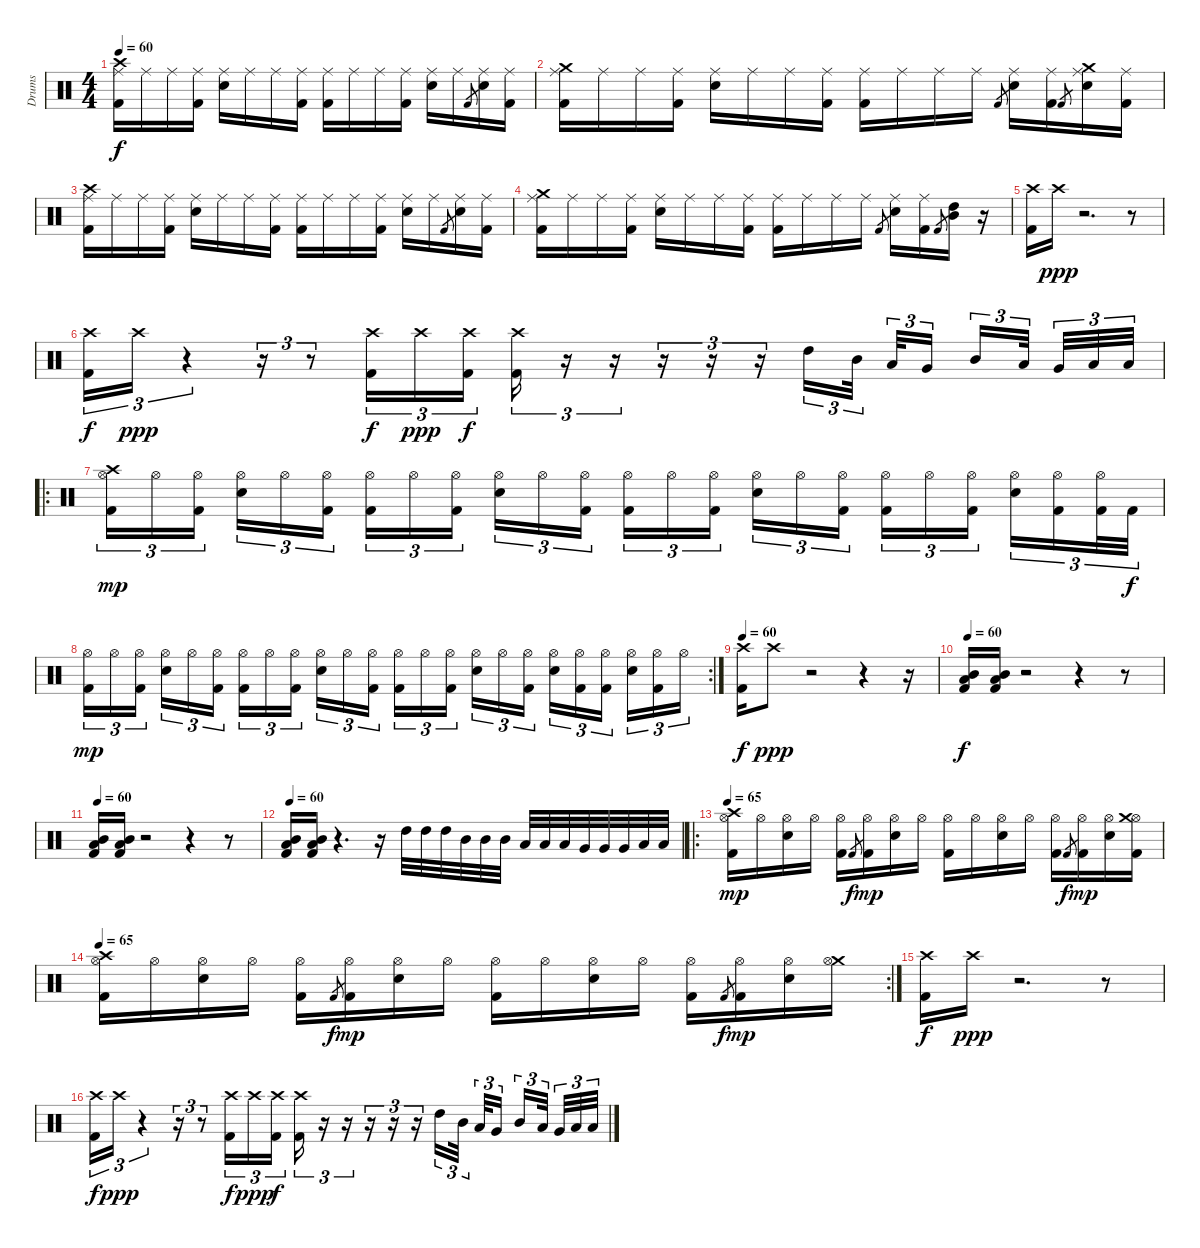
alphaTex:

\track ("Drums" "Drums") {instrument percussion}
\staff {score}
\articulation defaults
\ts (4 4)
\tempo 60
\clef neutral
\ks c
("Ride (middle)" "Crash high (hit)" "Kick (hit) 2").16{dy f} "Ride (middle)".16 "Ride (middle)".16 ("Ride (middle)" "Kick (hit) 2").16 ("Ride (middle)" "Snare (hit) 2").16 "Ride (middle)".16 "Ride (middle)".16 ("Ride (middle)" "Kick (hit) 2").16 ("Ride (middle)" "Kick (hit) 2").16 "Ride (middle)".16 "Ride (middle)".16 ("Ride (middle)" "Kick (hit) 2").16 ("Ride (middle)" "Snare (hit) 2").16 "Ride (middle)".16 "Kick (hit) 2".8{gr} ("Ride (middle)" "Snare (hit) 2").16 ("Ride (middle)" "Kick (hit) 2").16 |
("Ride (middle)" "Crash medium (hit)" "Kick (hit) 2").16 "Ride (middle)".16 "Ride (middle)".16 ("Ride (middle)" "Kick (hit) 2").16 ("Ride (middle)" "Snare (hit) 2").16 "Ride (middle)".16 "Ride (middle)".16 ("Ride (middle)" "Kick (hit) 2").16 ("Ride (middle)" "Kick (hit) 2").16 "Ride (middle)".16 "Ride (middle)".16 "Ride (middle)".16 "Kick (hit) 2".8{gr} ("Ride (middle)" "Snare (hit) 2").16 ("Ride (middle)" "Kick (hit) 2").16 "Kick (hit) 2".8{gr} ("Ride (middle)" "Crash medium (hit)" "Snare (hit) 2").16 ("Ride (middle)" "Kick (hit) 2").16 |
("Ride (middle)" "Crash high (hit)" "Kick (hit) 2").16 "Ride (middle)".16 "Ride (middle)".16 ("Ride (middle)" "Kick (hit) 2").16 ("Ride (middle)" "Snare (hit) 2").16 "Ride (middle)".16 "Ride (middle)".16 ("Ride (middle)" "Kick (hit) 2").16 ("Ride (middle)" "Kick (hit) 2").16 "Ride (middle)".16 "Ride (middle)".16 ("Ride (middle)" "Kick (hit) 2").16 ("Ride (middle)" "Snare (hit) 2").16 "Ride (middle)".16 "Kick (hit) 2".8{gr} ("Ride (middle)" "Snare (hit) 2").16 ("Ride (middle)" "Kick (hit) 2").16 |
("Ride (middle)" "Crash medium (hit)" "Kick (hit) 2").16 "Ride (middle)".16 "Ride (middle)".16 ("Ride (middle)" "Kick (hit) 2").16 ("Ride (middle)" "Snare (hit) 2").16 "Ride (middle)".16 "Ride (middle)".16 ("Ride (middle)" "Kick (hit) 2").16 ("Ride (middle)" "Kick (hit) 2").16 "Ride (middle)".16 "Ride (middle)".16 "Ride (middle)".16 "Kick (hit) 2".8{gr} ("Ride (middle)" "Snare (hit) 2").16 ("Ride (middle)" "Kick (hit) 2").16 "Kick (hit) 2".8{gr} ("Mid Tom (hit)" "High Tom (hit)").16 r.16 |
("Crash high (hit)" "Kick (hit) 2").16 "Crash high (hit)".16{dy ppp} r.2{d} r.8 |
("Crash high (hit)" "Kick (hit) 2").16{tu (3 2) dy f} "Crash high (hit)".16{tu (3 2) dy ppp} r.4{tu (3 2)} r.16{tu (3 2)} r.8{tu (3 2)} ("Crash high (hit)" "Kick (hit) 2").16{tu (3 2) dy f} "Crash high (hit)".16{tu (3 2) dy ppp} ("Crash high (hit)" "Kick (hit) 2").16{tu (3 2) dy f} ("Crash high (hit)" "Kick (hit) 2").16{tu (3 2)} r.16{tu (3 2)} r.16{tu (3 2)} r.16{tu (3 2)} r.16{tu (3 2)} r.16{tu (3 2)} "High Tom (hit)".16{tu (3 2)} "Mid Tom (hit)".32{tu (3 2)} "Low Tom (hit)".32{tu (3 2)} "Very Low Tom (hit)".16{tu (3 2)} "Mid Tom (hit)".16{tu (3 2)} "Low Tom (hit)".32{tu (3 2)} "Very Low Tom (hit)".32{tu (3 2)} "Low Floor Tom (hit)".32{tu (3 2)} "Low Floor Tom (hit)".32{tu (3 2)} |
\ro
("Hi-Hat (open)" "Crash high (hit)" "Kick (hit) 2").16{tu (3 2) dy mp} "Hi-Hat (open)".16{tu (3 2)} ("Hi-Hat (open)" "Kick (hit) 2").16{tu (3 2)} ("Hi-Hat (open)" "Snare (hit) 2").16{tu (3 2)} "Hi-Hat (open)".16{tu (3 2)} ("Hi-Hat (open)" "Kick (hit) 2").16{tu (3 2)} ("Hi-Hat (open)" "Kick (hit) 2").16{tu (3 2)} "Hi-Hat (open)".16{tu (3 2)} ("Hi-Hat (open)" "Kick (hit) 2").16{tu (3 2)} ("Hi-Hat (open)" "Snare (hit) 2").16{tu (3 2)} "Hi-Hat (open)".16{tu (3 2)} ("Hi-Hat (open)" "Kick (hit) 2").16{tu (3 2)} ("Hi-Hat (open)" "Kick (hit) 2").16{tu (3 2)} "Hi-Hat (open)".16{tu (3 2)} ("Hi-Hat (open)" "Kick (hit) 2").16{tu (3 2)} ("Hi-Hat (open)" "Snare (hit) 2").16{tu (3 2)} "Hi-Hat (open)".16{tu (3 2)} ("Hi-Hat (open)" "Kick (hit) 2").16{tu (3 2)} ("Hi-Hat (open)" "Kick (hit) 2").16{tu (3 2)} "Hi-Hat (open)".16{tu (3 2)} ("Hi-Hat (open)" "Kick (hit) 2").16{tu (3 2)} ("Hi-Hat (open)" "Snare (hit) 2").16{tu (3 2)} ("Hi-Hat (open)" "Kick (hit) 2").16{tu (3 2)} ("Hi-Hat (open)" "Kick (hit) 2").32{tu (3 2)} "Kick (hit) 2".32{tu (3 2) dy f} |
\rc 2
("Hi-Hat (open)" "Kick (hit) 2").16{tu (3 2) dy mp} "Hi-Hat (open)".16{tu (3 2)} ("Hi-Hat (open)" "Kick (hit) 2").16{tu (3 2)} ("Hi-Hat (open)" "Snare (hit) 2").16{tu (3 2)} "Hi-Hat (open)".16{tu (3 2)} ("Hi-Hat (open)" "Kick (hit) 2").16{tu (3 2)} ("Hi-Hat (open)" "Kick (hit) 2").16{tu (3 2)} "Hi-Hat (open)".16{tu (3 2)} ("Hi-Hat (open)" "Kick (hit) 2").16{tu (3 2)} ("Hi-Hat (open)" "Snare (hit) 2").16{tu (3 2)} "Hi-Hat (open)".16{tu (3 2)} ("Hi-Hat (open)" "Kick (hit) 2").16{tu (3 2)} ("Hi-Hat (open)" "Kick (hit) 2").16{tu (3 2)} "Hi-Hat (open)".16{tu (3 2)} ("Hi-Hat (open)" "Kick (hit) 2").16{tu (3 2)} ("Hi-Hat (open)" "Snare (hit) 2").16{tu (3 2)} "Hi-Hat (open)".16{tu (3 2)} ("Hi-Hat (open)" "Kick (hit) 2").16{tu (3 2)} ("Hi-Hat (open)" "Snare (hit) 2").16{tu (3 2)} ("Hi-Hat (open)" "Kick (hit) 2").16{tu (3 2)} ("Hi-Hat (open)" "Kick (hit) 2").16{tu (3 2)} ("Hi-Hat (open)" "Snare (hit) 2").16{tu (3 2)} ("Hi-Hat (open)" "Kick (hit) 2").16{tu (3 2)} "Hi-Hat (open)".16{tu (3 2)} |
\tempo 60
("Crash high (hit)" "Kick (hit) 2").16{dy f} "Crash high (hit)".8{dy ppp} r.2 r.4 r.16 |
\tempo 60
("Mid Tom (hit)" "Low Tom (hit)" "Kick (hit) 2").16{dy f} ("Mid Tom (hit)" "Low Tom (hit)" "Kick (hit) 2").16 r.2 r.4 r.8 |
\tempo 60
("Mid Tom (hit)" "Low Tom (hit)" "Kick (hit) 2").16 ("Mid Tom (hit)" "Low Tom (hit)" "Kick (hit) 2").16 r.2 r.4 r.8 |
\tempo 60
("Mid Tom (hit)" "Low Tom (hit)" "Kick (hit) 2").16 ("Mid Tom (hit)" "Low Tom (hit)" "Kick (hit) 2").16 r.4{d} r.16 "High Tom (hit)".32 "High Tom (hit)".32 "High Tom (hit)".32 "Mid Tom (hit)".32 "Mid Tom (hit)".32 "Mid Tom (hit)".32 "Low Tom (hit)".32 "Low Tom (hit)".32 "Low Tom (hit)".32 "Very Low Tom (hit)".32 "Very Low Tom (hit)".32 "Very Low Tom (hit)".32 "Low Floor Tom (hit)".32 "Low Floor Tom (hit)".32 |
\ro
\tempo 60
\tempo 65
("Crash high (hit)" "Hi-Hat (open)" "Kick (hit) 2").16{dy mp} "Hi-Hat (open)".16 ("Hi-Hat (open)" "Snare (hit) 2").16 "Hi-Hat (open)".16 ("Hi-Hat (open)" "Kick (hit) 2").16 "Kick (hit) 2".8{gr dy f} ("Hi-Hat (open)" "Kick (hit) 2").16{dy mp} ("Hi-Hat (open)" "Snare (hit) 2").16 "Hi-Hat (open)".16 ("Hi-Hat (open)" "Kick (hit) 2").16 "Hi-Hat (open)".16 ("Hi-Hat (open)" "Snare (hit) 2").16 "Hi-Hat (open)".16 ("Hi-Hat (open)" "Kick (hit) 2").16 "Kick (hit) 2".8{gr dy f} ("Hi-Hat (open)" "Kick (hit) 2").16{dy mp} ("Hi-Hat (open)" "Snare (hit) 2").16 ("Hi-Hat (open)" "Crash medium (hit)" "Kick (hit) 2").16 |
\rc 2
\tempo 60
\tempo 65
("Crash high (hit)" "Hi-Hat (open)" "Kick (hit) 2").16 "Hi-Hat (open)".16 ("Hi-Hat (open)" "Snare (hit) 2").16 "Hi-Hat (open)".16 ("Hi-Hat (open)" "Kick (hit) 2").16 "Kick (hit) 2".8{gr dy f} ("Hi-Hat (open)" "Kick (hit) 2").16{dy mp} ("Hi-Hat (open)" "Snare (hit) 2").16 "Hi-Hat (open)".16 ("Hi-Hat (open)" "Kick (hit) 2").16 "Hi-Hat (open)".16 ("Hi-Hat (open)" "Snare (hit) 2").16 "Hi-Hat (open)".16 ("Hi-Hat (open)" "Kick (hit) 2").16 "Kick (hit) 2".8{gr dy f} ("Hi-Hat (open)" "Kick (hit) 2").16{dy mp} ("Hi-Hat (open)" "Snare (hit) 2").16 ("Crash medium (hit)" "Hi-Hat (open)").16 |
("Crash high (hit)" "Kick (hit) 2").16{dy f} "Crash high (hit)".16{dy ppp} r.2{d} r.8 |
("Crash high (hit)" "Kick (hit) 2").16{tu (3 2) dy f} "Crash high (hit)".16{tu (3 2) dy ppp} r.4{tu (3 2)} r.16{tu (3 2)} r.8{tu (3 2)} ("Crash high (hit)" "Kick (hit) 2").16{tu (3 2) dy f} "Crash high (hit)".16{tu (3 2) dy ppp} ("Crash high (hit)" "Kick (hit) 2").16{tu (3 2) dy f} ("Crash high (hit)" "Kick (hit) 2").16{tu (3 2)} r.16{tu (3 2)} r.16{tu (3 2)} r.16{tu (3 2)} r.16{tu (3 2)} r.16{tu (3 2)} "High Tom (hit)".16{tu (3 2)} "Mid Tom (hit)".32{tu (3 2)} "Low Tom (hit)".32{tu (3 2)} "Very Low Tom (hit)".16{tu (3 2)} "Mid Tom (hit)".16{tu (3 2)} "Low Tom (hit)".32{tu (3 2)} "Very Low Tom (hit)".32{tu (3 2)} "Low Floor Tom (hit)".32{tu (3 2)} "Low Floor Tom (hit)".32{tu (3 2)}
